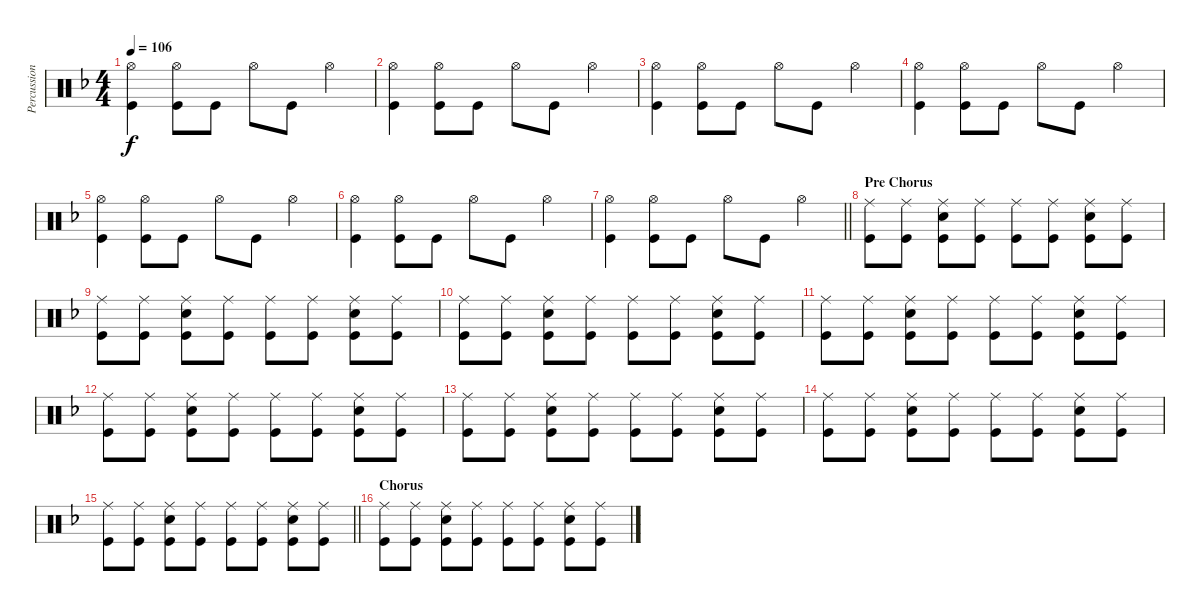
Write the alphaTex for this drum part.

\track ("Percussion" "Percussion") {instrument percussion}
\staff {score}
\articulation defaults
\ts (4 4)
\tempo 106
\clef neutral
\ks dminor
("Hi-Hat (open)" "Kick (hit)").4{dy f} ("Hi-Hat (open)" "Kick (hit)").8 "Kick (hit)".8 "Hi-Hat (open)".8 "Kick (hit)".8 "Hi-Hat (open)".4 |
("Hi-Hat (open)" "Kick (hit)").4 ("Hi-Hat (open)" "Kick (hit)").8 "Kick (hit)".8 "Hi-Hat (open)".8 "Kick (hit)".8 "Hi-Hat (open)".4 |
("Hi-Hat (open)" "Kick (hit)").4 ("Hi-Hat (open)" "Kick (hit)").8 "Kick (hit)".8 "Hi-Hat (open)".8 "Kick (hit)".8 "Hi-Hat (open)".4 |
("Hi-Hat (open)" "Kick (hit)").4 ("Hi-Hat (open)" "Kick (hit)").8 "Kick (hit)".8 "Hi-Hat (open)".8 "Kick (hit)".8 "Hi-Hat (open)".4 |
("Hi-Hat (open)" "Kick (hit)").4 ("Hi-Hat (open)" "Kick (hit)").8 "Kick (hit)".8 "Hi-Hat (open)".8 "Kick (hit)".8 "Hi-Hat (open)".4 |
("Hi-Hat (open)" "Kick (hit)").4 ("Hi-Hat (open)" "Kick (hit)").8 "Kick (hit)".8 "Hi-Hat (open)".8 "Kick (hit)".8 "Hi-Hat (open)".4 |
\barLineRight lightlight
("Hi-Hat (open)" "Kick (hit)").4 ("Hi-Hat (open)" "Kick (hit)").8 "Kick (hit)".8 "Hi-Hat (open)".8 "Kick (hit)".8 "Hi-Hat (open)".4 |
\section ("" "Pre Chorus")
("Ride (middle)" "Kick (hit)").8 ("Ride (middle)" "Kick (hit)").8 ("Ride (middle)" "Snare (hit) 2" "Kick (hit)").8 ("Ride (middle)" "Kick (hit)").8 ("Ride (middle)" "Kick (hit)").8 ("Ride (middle)" "Kick (hit)").8 ("Ride (middle)" "Snare (hit) 2" "Kick (hit)").8 ("Ride (middle)" "Kick (hit)").8 |
("Ride (middle)" "Kick (hit)").8 ("Ride (middle)" "Kick (hit)").8 ("Ride (middle)" "Snare (hit) 2" "Kick (hit)").8 ("Ride (middle)" "Kick (hit)").8 ("Ride (middle)" "Kick (hit)").8 ("Ride (middle)" "Kick (hit)").8 ("Ride (middle)" "Snare (hit) 2" "Kick (hit)").8 ("Ride (middle)" "Kick (hit)").8 |
("Ride (middle)" "Kick (hit)").8 ("Ride (middle)" "Kick (hit)").8 ("Ride (middle)" "Snare (hit) 2" "Kick (hit)").8 ("Ride (middle)" "Kick (hit)").8 ("Ride (middle)" "Kick (hit)").8 ("Ride (middle)" "Kick (hit)").8 ("Ride (middle)" "Snare (hit) 2" "Kick (hit)").8 ("Ride (middle)" "Kick (hit)").8 |
("Ride (middle)" "Kick (hit)").8 ("Ride (middle)" "Kick (hit)").8 ("Ride (middle)" "Snare (hit) 2" "Kick (hit)").8 ("Ride (middle)" "Kick (hit)").8 ("Ride (middle)" "Kick (hit)").8 ("Ride (middle)" "Kick (hit)").8 ("Ride (middle)" "Snare (hit) 2" "Kick (hit)").8 ("Ride (middle)" "Kick (hit)").8 |
("Ride (middle)" "Kick (hit)").8 ("Ride (middle)" "Kick (hit)").8 ("Ride (middle)" "Snare (hit) 2" "Kick (hit)").8 ("Ride (middle)" "Kick (hit)").8 ("Ride (middle)" "Kick (hit)").8 ("Ride (middle)" "Kick (hit)").8 ("Ride (middle)" "Snare (hit) 2" "Kick (hit)").8 ("Ride (middle)" "Kick (hit)").8 |
("Ride (middle)" "Kick (hit)").8 ("Ride (middle)" "Kick (hit)").8 ("Ride (middle)" "Snare (hit) 2" "Kick (hit)").8 ("Ride (middle)" "Kick (hit)").8 ("Ride (middle)" "Kick (hit)").8 ("Ride (middle)" "Kick (hit)").8 ("Ride (middle)" "Snare (hit) 2" "Kick (hit)").8 ("Ride (middle)" "Kick (hit)").8 |
("Ride (middle)" "Kick (hit)").8 ("Ride (middle)" "Kick (hit)").8 ("Ride (middle)" "Snare (hit) 2" "Kick (hit)").8 ("Ride (middle)" "Kick (hit)").8 ("Ride (middle)" "Kick (hit)").8 ("Ride (middle)" "Kick (hit)").8 ("Ride (middle)" "Snare (hit) 2" "Kick (hit)").8 ("Ride (middle)" "Kick (hit)").8 |
\barLineRight lightlight
("Ride (middle)" "Kick (hit)").8 ("Ride (middle)" "Kick (hit)").8 ("Ride (middle)" "Snare (hit) 2" "Kick (hit)").8 ("Ride (middle)" "Kick (hit)").8 ("Ride (middle)" "Kick (hit)").8 ("Ride (middle)" "Kick (hit)").8 ("Ride (middle)" "Snare (hit) 2" "Kick (hit)").8 ("Ride (middle)" "Kick (hit)").8 |
\section ("" "Chorus")
("Ride (middle)" "Kick (hit)").8 ("Ride (middle)" "Kick (hit)").8 ("Ride (middle)" "Snare (hit) 2" "Kick (hit)").8 ("Ride (middle)" "Kick (hit)").8 ("Ride (middle)" "Kick (hit)").8 ("Ride (middle)" "Kick (hit)").8 ("Ride (middle)" "Snare (hit) 2" "Kick (hit)").8 ("Ride (middle)" "Kick (hit)").8
